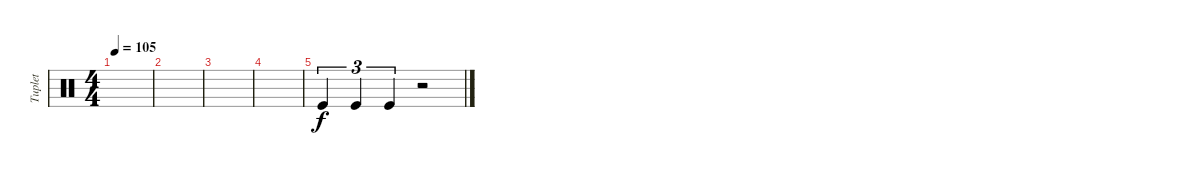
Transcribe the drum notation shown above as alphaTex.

\track ("Tuplet" "Tuplet") {instrument percussion}
\staff {score}
\articulation defaults
\ts (4 4)
\tempo 105
\clef neutral
\ks c
|
|
|
|
"Kick (hit)".4{tu (3 2)} "Kick (hit)".4{tu (3 2)} "Kick (hit)".4{tu (3 2)} r.2
